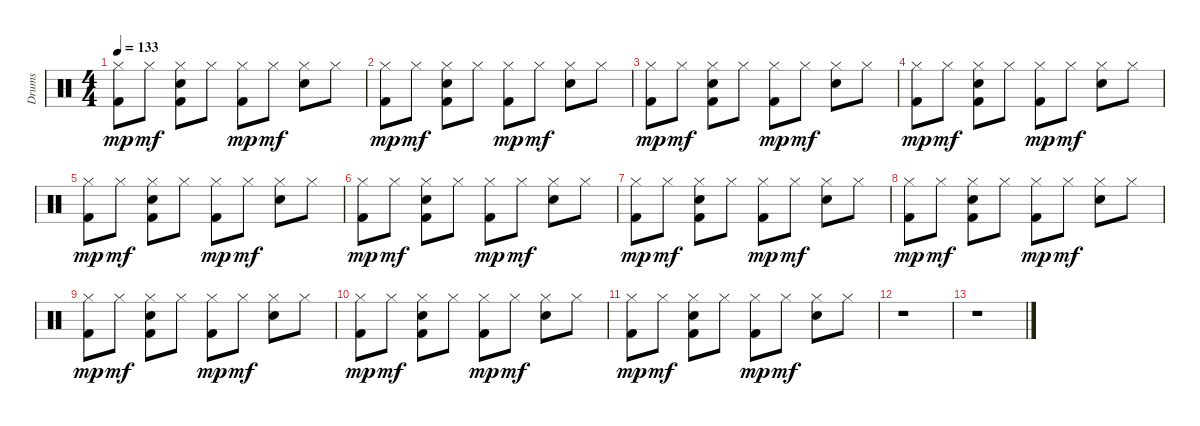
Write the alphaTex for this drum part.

\track ("Drums" "Drums") {instrument percussion}
\staff {score}
\articulation defaults
\ts (4 4)
\tempo 133
\clef neutral
\ks c
("Kick (hit) 2" "Hi-Hat (closed)").8{dy mp} "Hi-Hat (closed)".8{dy mf} ("Kick (hit) 2" "Snare (hit) 2" "Hi-Hat (closed)").8 "Hi-Hat (closed)".8 ("Kick (hit) 2" "Hi-Hat (closed)").8{dy mp} "Hi-Hat (closed)".8{dy mf} ("Snare (hit) 2" "Hi-Hat (closed)").8 "Hi-Hat (closed)".8 |
("Kick (hit) 2" "Hi-Hat (closed)").8{dy mp} "Hi-Hat (closed)".8{dy mf} ("Kick (hit) 2" "Snare (hit) 2" "Hi-Hat (closed)").8 "Hi-Hat (closed)".8 ("Kick (hit) 2" "Hi-Hat (closed)").8{dy mp} "Hi-Hat (closed)".8{dy mf} ("Snare (hit) 2" "Hi-Hat (closed)").8 "Hi-Hat (closed)".8 |
("Kick (hit) 2" "Hi-Hat (closed)").8{dy mp} "Hi-Hat (closed)".8{dy mf} ("Kick (hit) 2" "Snare (hit) 2" "Hi-Hat (closed)").8 "Hi-Hat (closed)".8 ("Kick (hit) 2" "Hi-Hat (closed)").8{dy mp} "Hi-Hat (closed)".8{dy mf} ("Snare (hit) 2" "Hi-Hat (closed)").8 "Hi-Hat (closed)".8 |
("Kick (hit) 2" "Hi-Hat (closed)").8{dy mp} "Hi-Hat (closed)".8{dy mf} ("Kick (hit) 2" "Snare (hit) 2" "Hi-Hat (closed)").8 "Hi-Hat (closed)".8 ("Kick (hit) 2" "Hi-Hat (closed)").8{dy mp} "Hi-Hat (closed)".8{dy mf} ("Snare (hit) 2" "Hi-Hat (closed)").8 "Hi-Hat (closed)".8 |
("Kick (hit) 2" "Hi-Hat (closed)").8{dy mp} "Hi-Hat (closed)".8{dy mf} ("Kick (hit) 2" "Snare (hit) 2" "Hi-Hat (closed)").8 "Hi-Hat (closed)".8 ("Kick (hit) 2" "Hi-Hat (closed)").8{dy mp} "Hi-Hat (closed)".8{dy mf} ("Snare (hit) 2" "Hi-Hat (closed)").8 "Hi-Hat (closed)".8 |
("Kick (hit) 2" "Hi-Hat (closed)").8{dy mp} "Hi-Hat (closed)".8{dy mf} ("Kick (hit) 2" "Snare (hit) 2" "Hi-Hat (closed)").8 "Hi-Hat (closed)".8 ("Kick (hit) 2" "Hi-Hat (closed)").8{dy mp} "Hi-Hat (closed)".8{dy mf} ("Snare (hit) 2" "Hi-Hat (closed)").8 "Hi-Hat (closed)".8 |
("Kick (hit) 2" "Hi-Hat (closed)").8{dy mp} "Hi-Hat (closed)".8{dy mf} ("Kick (hit) 2" "Snare (hit) 2" "Hi-Hat (closed)").8 "Hi-Hat (closed)".8 ("Kick (hit) 2" "Hi-Hat (closed)").8{dy mp} "Hi-Hat (closed)".8{dy mf} ("Snare (hit) 2" "Hi-Hat (closed)").8 "Hi-Hat (closed)".8 |
("Kick (hit) 2" "Hi-Hat (closed)").8{dy mp} "Hi-Hat (closed)".8{dy mf} ("Kick (hit) 2" "Snare (hit) 2" "Hi-Hat (closed)").8 "Hi-Hat (closed)".8 ("Kick (hit) 2" "Hi-Hat (closed)").8{dy mp} "Hi-Hat (closed)".8{dy mf} ("Snare (hit) 2" "Hi-Hat (closed)").8 "Hi-Hat (closed)".8 |
("Kick (hit) 2" "Hi-Hat (closed)").8{dy mp} "Hi-Hat (closed)".8{dy mf} ("Kick (hit) 2" "Snare (hit) 2" "Hi-Hat (closed)").8 "Hi-Hat (closed)".8 ("Kick (hit) 2" "Hi-Hat (closed)").8{dy mp} "Hi-Hat (closed)".8{dy mf} ("Snare (hit) 2" "Hi-Hat (closed)").8 "Hi-Hat (closed)".8 |
("Kick (hit) 2" "Hi-Hat (closed)").8{dy mp} "Hi-Hat (closed)".8{dy mf} ("Kick (hit) 2" "Snare (hit) 2" "Hi-Hat (closed)").8 "Hi-Hat (closed)".8 ("Kick (hit) 2" "Hi-Hat (closed)").8{dy mp} "Hi-Hat (closed)".8{dy mf} ("Snare (hit) 2" "Hi-Hat (closed)").8 "Hi-Hat (closed)".8 |
("Kick (hit) 2" "Hi-Hat (closed)").8{dy mp} "Hi-Hat (closed)".8{dy mf} ("Kick (hit) 2" "Snare (hit) 2" "Hi-Hat (closed)").8 "Hi-Hat (closed)".8 ("Kick (hit) 2" "Hi-Hat (closed)").8{dy mp} "Hi-Hat (closed)".8{dy mf} ("Snare (hit) 2" "Hi-Hat (closed)").8 "Hi-Hat (closed)".8 |
r.1 |
r.1
